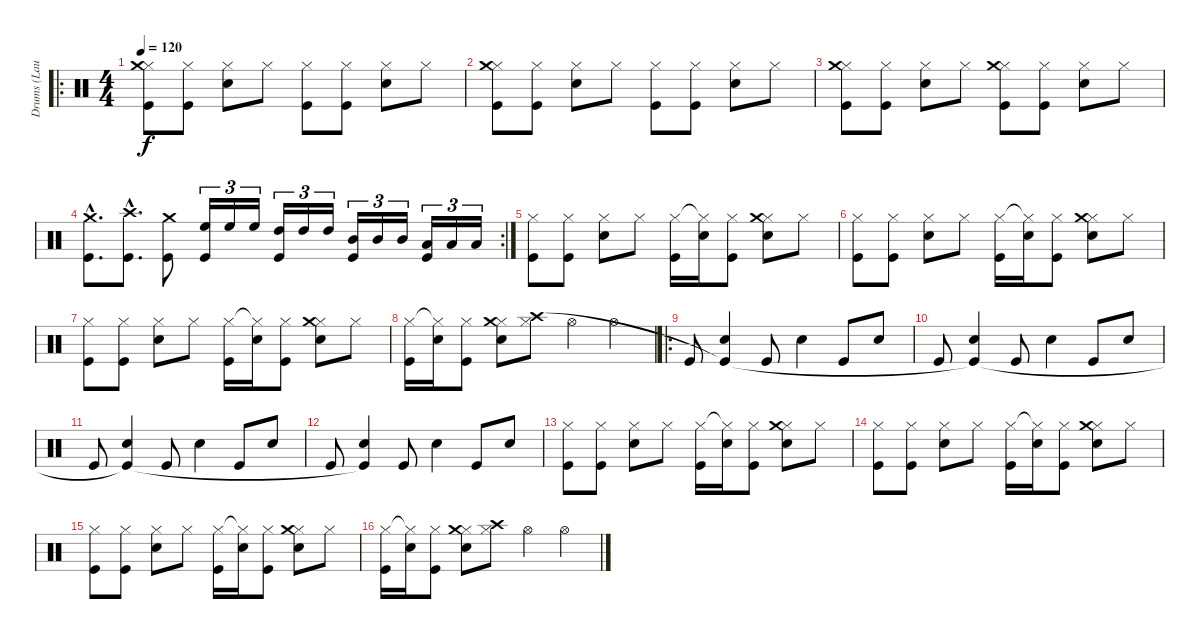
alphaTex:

\track ("Drums (Laurent)" "Drums (Lau") {instrument percussion}
\staff {score}
\articulation defaults
\ro
\ts (4 4)
\tempo 120
\clef neutral
\ks c
("Hi-Hat (closed)" "Crash medium (hit)" "Kick (hit)").8{dy f} ("Hi-Hat (closed)" "Kick (hit)").8 ("Hi-Hat (closed)" "Electric Snare (hit)").8 "Hi-Hat (closed)".8 ("Hi-Hat (closed)" "Kick (hit)").8 ("Hi-Hat (closed)" "Kick (hit)").8 ("Hi-Hat (closed)" "Electric Snare (hit)").8 "Hi-Hat (closed)".8 |
("Hi-Hat (closed)" "Crash medium (hit)" "Kick (hit)").8 ("Hi-Hat (closed)" "Kick (hit)").8 ("Hi-Hat (closed)" "Electric Snare (hit)").8 "Hi-Hat (closed)".8 ("Hi-Hat (closed)" "Kick (hit)").8 ("Hi-Hat (closed)" "Kick (hit)").8 ("Hi-Hat (closed)" "Electric Snare (hit)").8 "Hi-Hat (closed)".8 |
("Hi-Hat (closed)" "Crash medium (hit)" "Kick (hit)").8 ("Hi-Hat (closed)" "Kick (hit)").8 ("Hi-Hat (closed)" "Electric Snare (hit)").8 "Hi-Hat (closed)".8 ("Hi-Hat (closed)" "Crash medium (hit)" "Kick (hit)").8 ("Hi-Hat (closed)" "Kick (hit)").8 ("Hi-Hat (closed)" "Electric Snare (hit)").8 "Hi-Hat (closed)".8 |
\rc 2
("Crash medium (hit)"{hac} "Kick (hit)"{hac}).8{d} ("Crash high (hit)"{hac} "Kick (hit)"{hac}).8{d} ("Crash medium (hit)" "Kick (hit)").8 ("High Floor Tom (hit)" "Kick (hit)").16{tu (3 2)} "High Floor Tom (hit)".16{tu (3 2)} "High Floor Tom (hit)".16{tu (3 2)} ("High Tom (hit)" "Kick (hit)").16{tu (3 2)} "High Tom (hit)".16{tu (3 2)} "High Tom (hit)".16{tu (3 2)} ("Mid Tom (hit)" "Kick (hit)").16{tu (3 2)} "Mid Tom (hit)".16{tu (3 2)} "Mid Tom (hit)".16{tu (3 2)} ("Low Tom (hit)" "Kick (hit)").16{tu (3 2)} "Low Tom (hit)".16{tu (3 2)} "Low Tom (hit)".16{tu (3 2)} |
("Hi-Hat (closed)" "Kick (hit)").8 ("Hi-Hat (closed)" "Kick (hit)").8 ("Hi-Hat (closed)" "Electric Snare (hit)").8 "Hi-Hat (closed)".8 ("Hi-Hat (closed)" "Kick (hit)").16 ("Hi-Hat (closed)"{t} "Electric Snare (hit)").16 ("Hi-Hat (closed)" "Kick (hit)").8 ("Hi-Hat (closed)" "Crash medium (hit)" "Electric Snare (hit)").8 "Hi-Hat (closed)".8 |
("Hi-Hat (closed)" "Kick (hit)").8 ("Hi-Hat (closed)" "Kick (hit)").8 ("Hi-Hat (closed)" "Electric Snare (hit)").8 "Hi-Hat (closed)".8 ("Hi-Hat (closed)" "Kick (hit)").16 ("Hi-Hat (closed)"{t} "Electric Snare (hit)").16 ("Hi-Hat (closed)" "Kick (hit)").8 ("Hi-Hat (closed)" "Crash medium (hit)" "Electric Snare (hit)").8 "Hi-Hat (closed)".8 |
("Hi-Hat (closed)" "Kick (hit)").8 ("Hi-Hat (closed)" "Kick (hit)").8 ("Hi-Hat (closed)" "Electric Snare (hit)").8 "Hi-Hat (closed)".8 ("Hi-Hat (closed)" "Kick (hit)").16 ("Hi-Hat (closed)"{t} "Electric Snare (hit)").16 ("Hi-Hat (closed)" "Kick (hit)").8 ("Hi-Hat (closed)" "Crash medium (hit)" "Electric Snare (hit)").8 "Hi-Hat (closed)".8 |
("Hi-Hat (closed)" "Kick (hit)").16 ("Hi-Hat (closed)"{t} "Electric Snare (hit)").16 ("Hi-Hat (closed)" "Kick (hit)").8 ("Hi-Hat (closed)" "Crash medium (hit)" "Electric Snare (hit)").8 ("Hi-Hat (closed)" "Crash high (hit)").8 "Hi-Hat (open)".4 "Hi-Hat (open)".4 |
\ro "Kick (hit)".8
("Electric Snare (hit)" "Kick (hit)"{t}).4 "Kick (hit)".8 "Electric Snare (hit)".4 "Kick (hit)".8 "Electric Snare (hit)".8 |
"Kick (hit)".8 ("Electric Snare (hit)" "Kick (hit)"{t}).4 "Kick (hit)".8 "Electric Snare (hit)".4 "Kick (hit)".8 "Electric Snare (hit)".8 |
"Kick (hit)".8 ("Electric Snare (hit)" "Kick (hit)"{t}).4 "Kick (hit)".8 "Electric Snare (hit)".4 "Kick (hit)".8 "Electric Snare (hit)".8 |
"Kick (hit)".8 ("Electric Snare (hit)" "Kick (hit)"{t}).4 "Kick (hit)".8 "Electric Snare (hit)".4 "Kick (hit)".8 "Electric Snare (hit)".8 |
("Hi-Hat (closed)" "Kick (hit)").8 ("Hi-Hat (closed)" "Kick (hit)").8 ("Hi-Hat (closed)" "Electric Snare (hit)").8 "Hi-Hat (closed)".8 ("Hi-Hat (closed)" "Kick (hit)").16 ("Hi-Hat (closed)"{t} "Electric Snare (hit)").16 ("Hi-Hat (closed)" "Kick (hit)").8 ("Hi-Hat (closed)" "Crash medium (hit)" "Electric Snare (hit)").8 "Hi-Hat (closed)".8 |
("Hi-Hat (closed)" "Kick (hit)").8 ("Hi-Hat (closed)" "Kick (hit)").8 ("Hi-Hat (closed)" "Electric Snare (hit)").8 "Hi-Hat (closed)".8 ("Hi-Hat (closed)" "Kick (hit)").16 ("Hi-Hat (closed)"{t} "Electric Snare (hit)").16 ("Hi-Hat (closed)" "Kick (hit)").8 ("Hi-Hat (closed)" "Crash medium (hit)" "Electric Snare (hit)").8 "Hi-Hat (closed)".8 |
("Hi-Hat (closed)" "Kick (hit)").8 ("Hi-Hat (closed)" "Kick (hit)").8 ("Hi-Hat (closed)" "Electric Snare (hit)").8 "Hi-Hat (closed)".8 ("Hi-Hat (closed)" "Kick (hit)").16 ("Hi-Hat (closed)"{t} "Electric Snare (hit)").16 ("Hi-Hat (closed)" "Kick (hit)").8 ("Hi-Hat (closed)" "Crash medium (hit)" "Electric Snare (hit)").8 "Hi-Hat (closed)".8 |
("Hi-Hat (closed)" "Kick (hit)").16 ("Hi-Hat (closed)"{t} "Electric Snare (hit)").16 ("Hi-Hat (closed)" "Kick (hit)").8 ("Hi-Hat (closed)" "Crash medium (hit)" "Electric Snare (hit)").8 ("Hi-Hat (closed)" "Crash high (hit)").8 "Hi-Hat (open)".4 "Hi-Hat (open)".4
